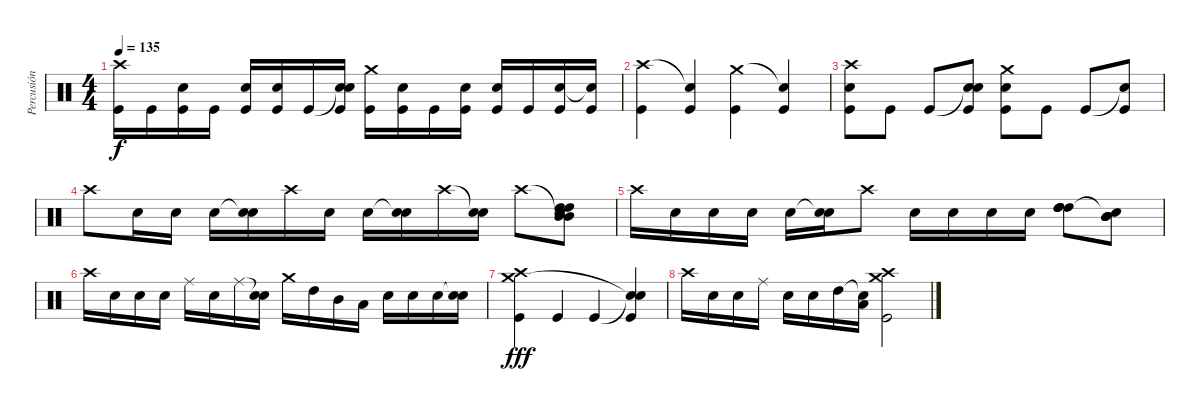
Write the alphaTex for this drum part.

\track ("Percusión" "Percusión") {instrument percussion}
\staff {score}
\articulation defaults
\ts (4 4)
\tempo 135
\clef neutral
\ks c
("Crash high (hit)" "Kick (hit)").16{dy f} "Kick (hit)".16 ("Snare (hit) 2" "Kick (hit)").16 "Kick (hit)".16 ("Snare (hit) 2" "Kick (hit)").16 ("Snare (hit) 2" "Kick (hit)").16 "Kick (hit)".16 ("Snare (hit)"{t} "Snare (hit) 2" "Kick (hit)").16 ("Crash medium (hit)" "Kick (hit)").16 ("Snare (hit) 2" "Kick (hit)").16 "Kick (hit)".16 ("Snare (hit) 2" "Kick (hit)").16 ("Snare (hit) 2" "Kick (hit)").16 "Kick (hit)".16 ("Snare (hit) 2" "Kick (hit)").16 ("Snare (hit)"{t} "Kick (hit)").16 |
("Crash high (hit)" "Kick (hit)").4 ("Snare (hit)"{t} "Kick (hit)").4 ("Crash medium (hit)" "Kick (hit)").4 ("Snare (hit)"{t} "Kick (hit)").4 |
("Crash high (hit)" "Snare (hit) 2" "Kick (hit)").8 "Kick (hit)".8 "Kick (hit)".8 ("Snare (hit)"{t} "Snare (hit) 2" "Kick (hit)").8 ("Crash medium (hit)" "Snare (hit) 2" "Kick (hit)").8 "Kick (hit)".8 "Kick (hit)".8 ("Snare (hit)"{t} "Kick (hit)").8 |
"Crash high (hit)".8 "Snare (hit) 2".16 "Snare (hit) 2".16 "Snare (hit) 2".16 ("Snare (hit)"{t} "Snare (hit) 2").16 "Crash high (hit)".16 "Snare (hit) 2".16 "Snare (hit) 2".16 ("Snare (hit)"{t} "Snare (hit) 2").16 "Crash high (hit)".16 ("Snare (hit)"{t} "Snare (hit) 2").16 "Crash high (hit)".8 ("Snare (hit)"{t} "High Tom (hit)" "High Tom (hit)" "Mid Tom (hit)" "Mid Tom (hit)").8 |
"Crash high (hit)".16 "Snare (hit) 2".16 "Snare (hit) 2".16 "Snare (hit) 2".16 "Snare (hit) 2".16 ("Snare (hit)"{t} "Snare (hit) 2").16 "Crash high (hit)".8 "Snare (hit) 2".16 "Snare (hit) 2".16 "Snare (hit) 2".16 "Snare (hit) 2".16 ("High Tom (hit)" "High Tom (hit)" "High Tom (hit)" "High Tom (hit)").8 ("Snare (hit)"{t} "Mid Tom (hit)" "Mid Tom (hit)" "Mid Tom (hit)" "Mid Tom (hit)").8 |
"Crash high (hit)".16 "Snare (hit) 2".16 "Snare (hit) 2".16 "Snare (hit) 2".16 "Ride (middle)".16 "Snare (hit) 2".16 "Ride (middle)".16 ("Snare (hit)"{t} "Snare (hit) 2").16 "Crash medium (hit)".16 "High Tom (hit)".16 "Mid Tom (hit)".16 "Low Tom (hit)".16 "Snare (hit) 2".16 "Snare (hit) 2".16 "Snare (hit) 2".16 ("Snare (hit)"{t} "Snare (hit) 2").16 |
("Crash high (hit)" "Crash medium (hit)" "Kick (hit)").4{dy fff} "Kick (hit)".4 "Kick (hit)".4 ("Snare (hit)"{t} "Snare (hit)"{t} "Kick (hit)").4 |
"Crash high (hit)".16 "Snare (hit) 2".16 "Snare (hit) 2".16 "Ride (middle)".16 "Snare (hit) 2".16 "Snare (hit) 2".16 "High Tom (hit)".16 ("Snare (hit)"{t} "Low Tom (hit)").16 ("Crash high (hit)" "Crash medium (hit)" "Kick (hit)").2
